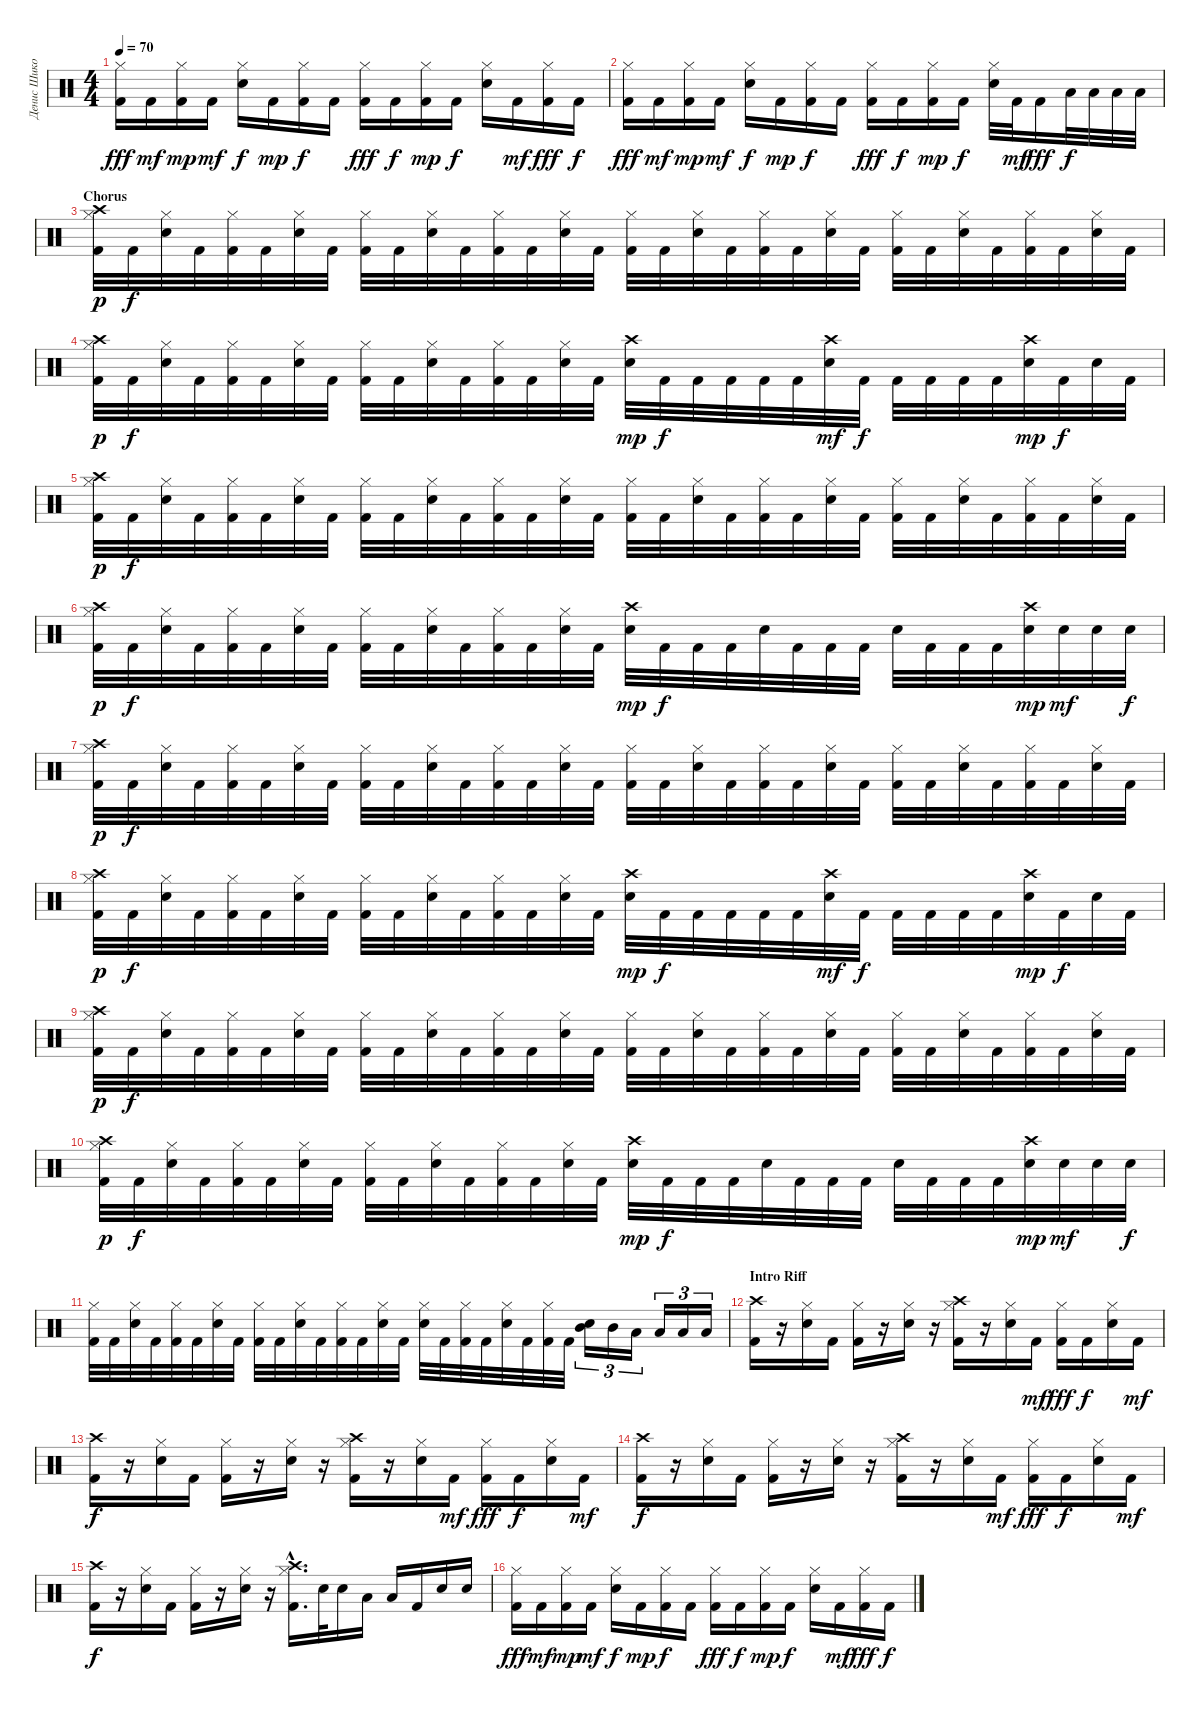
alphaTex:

\track ("Денис Шиков" "Денис Шико") {instrument percussion}
\staff {score}
\articulation defaults
\ts (4 4)
\tempo 70
\clef neutral
\ks c
("Hi-Hat (closed)" "Kick (hit) 2").16{dy fff} "Kick (hit) 2".16{dy mf} ("Hi-Hat (closed)" "Kick (hit) 2").16{dy mp} "Kick (hit) 2".16{dy mf} ("Hi-Hat (closed)" "Electric Snare (hit)").16{dy f} "Kick (hit) 2".16{dy mp} ("Hi-Hat (closed)" "Kick (hit) 2").16{dy f} "Kick (hit) 2".16 ("Hi-Hat (closed)" "Kick (hit) 2").16{dy fff} "Kick (hit) 2".16{dy f} ("Hi-Hat (closed)" "Kick (hit) 2").16{dy mp} "Kick (hit) 2".16{dy f} ("Hi-Hat (closed)" "Electric Snare (hit)").16 "Kick (hit) 2".16{dy mf} ("Hi-Hat (closed)" "Kick (hit) 2").16{dy fff} "Kick (hit) 2".16{dy f} |
("Hi-Hat (closed)" "Kick (hit) 2").16{dy fff} "Kick (hit) 2".16{dy mf} ("Hi-Hat (closed)" "Kick (hit) 2").16{dy mp} "Kick (hit) 2".16{dy mf} ("Hi-Hat (closed)" "Electric Snare (hit)").16{dy f} "Kick (hit) 2".16{dy mp} ("Hi-Hat (closed)" "Kick (hit) 2").16{dy f} "Kick (hit) 2".16 ("Hi-Hat (closed)" "Kick (hit) 2").16{dy fff} "Kick (hit) 2".16{dy f} ("Hi-Hat (closed)" "Kick (hit) 2").16{dy mp} "Kick (hit) 2".16{dy f} ("Hi-Hat (closed)" "Electric Snare (hit)").32 "Kick (hit) 2".32{dy mf} "Kick (hit) 2".16{dy fff} "Low Floor Tom (hit)".32{dy f} "Low Floor Tom (hit)".32 "Low Tom (hit)".32 "Low Floor Tom (hit)".32 |
\section ("" "Chorus")
("Crash high (hit)" "Hi-Hat (closed)" "Kick (hit) 2").32{dy p} "Kick (hit) 2".32{dy f} ("Hi-Hat (closed)" "Electric Snare (hit)").32 "Kick (hit) 2".32 ("Hi-Hat (closed)" "Kick (hit) 2").32 "Kick (hit) 2".32 ("Hi-Hat (closed)" "Electric Snare (hit)").32 "Kick (hit) 2".32 ("Hi-Hat (closed)" "Kick (hit) 2").32 "Kick (hit) 2".32 ("Hi-Hat (closed)" "Electric Snare (hit)").32 "Kick (hit) 2".32 ("Hi-Hat (closed)" "Kick (hit) 2").32 "Kick (hit) 2".32 ("Hi-Hat (closed)" "Electric Snare (hit)").32 "Kick (hit) 2".32 ("Hi-Hat (closed)" "Kick (hit) 2").32 "Kick (hit) 2".32 ("Hi-Hat (closed)" "Electric Snare (hit)").32 "Kick (hit) 2".32 ("Hi-Hat (closed)" "Kick (hit) 2").32 "Kick (hit) 2".32 ("Hi-Hat (closed)" "Electric Snare (hit)").32 "Kick (hit) 2".32 ("Hi-Hat (closed)" "Kick (hit) 2").32 "Kick (hit) 2".32 ("Hi-Hat (closed)" "Electric Snare (hit)").32 "Kick (hit) 2".32 ("Hi-Hat (closed)" "Kick (hit) 2").32 "Kick (hit) 2".32 ("Hi-Hat (closed)" "Electric Snare (hit)").32 "Kick (hit) 2".32 |
("Crash high (hit)" "Hi-Hat (closed)" "Kick (hit) 2").32{dy p} "Kick (hit) 2".32{dy f} ("Hi-Hat (closed)" "Electric Snare (hit)").32 "Kick (hit) 2".32 ("Hi-Hat (closed)" "Kick (hit) 2").32 "Kick (hit) 2".32 ("Hi-Hat (closed)" "Electric Snare (hit)").32 "Kick (hit) 2".32 ("Hi-Hat (closed)" "Kick (hit) 2").32 "Kick (hit) 2".32 ("Hi-Hat (closed)" "Electric Snare (hit)").32 "Kick (hit) 2".32 ("Hi-Hat (closed)" "Kick (hit) 2").32 "Kick (hit) 2".32 ("Hi-Hat (closed)" "Electric Snare (hit)").32 "Kick (hit) 2".32 ("Crash high (hit)" "Electric Snare (hit)").32{dy mp} "Kick (hit) 2".32{dy f} "Kick (hit) 2".32 "Kick (hit) 2".32 "Kick (hit) 2".32 "Kick (hit) 2".32 ("Crash high (hit)" "Electric Snare (hit)").32{dy mf} "Kick (hit) 2".32{dy f} "Kick (hit) 2".32 "Kick (hit) 2".32 "Kick (hit) 2".32 "Kick (hit) 2".32 ("Crash high (hit)" "Electric Snare (hit)").32{dy mp} "Kick (hit) 2".32{dy f} "Electric Snare (hit)".32 "Kick (hit) 2".32 |
("Crash high (hit)" "Hi-Hat (closed)" "Kick (hit) 2").32{dy p} "Kick (hit) 2".32{dy f} ("Hi-Hat (closed)" "Electric Snare (hit)").32 "Kick (hit) 2".32 ("Hi-Hat (closed)" "Kick (hit) 2").32 "Kick (hit) 2".32 ("Hi-Hat (closed)" "Electric Snare (hit)").32 "Kick (hit) 2".32 ("Hi-Hat (closed)" "Kick (hit) 2").32 "Kick (hit) 2".32 ("Hi-Hat (closed)" "Electric Snare (hit)").32 "Kick (hit) 2".32 ("Hi-Hat (closed)" "Kick (hit) 2").32 "Kick (hit) 2".32 ("Hi-Hat (closed)" "Electric Snare (hit)").32 "Kick (hit) 2".32 ("Hi-Hat (closed)" "Kick (hit) 2").32 "Kick (hit) 2".32 ("Hi-Hat (closed)" "Electric Snare (hit)").32 "Kick (hit) 2".32 ("Hi-Hat (closed)" "Kick (hit) 2").32 "Kick (hit) 2".32 ("Hi-Hat (closed)" "Electric Snare (hit)").32 "Kick (hit) 2".32 ("Hi-Hat (closed)" "Kick (hit) 2").32 "Kick (hit) 2".32 ("Hi-Hat (closed)" "Electric Snare (hit)").32 "Kick (hit) 2".32 ("Hi-Hat (closed)" "Kick (hit) 2").32 "Kick (hit) 2".32 ("Hi-Hat (closed)" "Electric Snare (hit)").32 "Kick (hit) 2".32 |
("Crash high (hit)" "Hi-Hat (closed)" "Kick (hit) 2").32{dy p} "Kick (hit) 2".32{dy f} ("Hi-Hat (closed)" "Electric Snare (hit)").32 "Kick (hit) 2".32 ("Hi-Hat (closed)" "Kick (hit) 2").32 "Kick (hit) 2".32 ("Hi-Hat (closed)" "Electric Snare (hit)").32 "Kick (hit) 2".32 ("Hi-Hat (closed)" "Kick (hit) 2").32 "Kick (hit) 2".32 ("Hi-Hat (closed)" "Electric Snare (hit)").32 "Kick (hit) 2".32 ("Hi-Hat (closed)" "Kick (hit) 2").32 "Kick (hit) 2".32 ("Hi-Hat (closed)" "Electric Snare (hit)").32 "Kick (hit) 2".32 ("Crash high (hit)" "Electric Snare (hit)").32{dy mp} "Kick (hit) 2".32{dy f} "Kick (hit) 2".32 "Kick (hit) 2".32 "Electric Snare (hit)".32 "Kick (hit) 2".32 "Kick (hit) 2".32 "Kick (hit) 2".32 "Electric Snare (hit)".32 "Kick (hit) 2".32 "Kick (hit) 2".32 "Kick (hit) 2".32 ("Crash high (hit)" "Electric Snare (hit)").32{dy mp} "Electric Snare (hit)".32{dy mf} "Electric Snare (hit)".32 "Electric Snare (hit)".32{dy f} |
("Crash high (hit)" "Hi-Hat (closed)" "Kick (hit) 2").32{dy p} "Kick (hit) 2".32{dy f} ("Hi-Hat (closed)" "Electric Snare (hit)").32 "Kick (hit) 2".32 ("Hi-Hat (closed)" "Kick (hit) 2").32 "Kick (hit) 2".32 ("Hi-Hat (closed)" "Electric Snare (hit)").32 "Kick (hit) 2".32 ("Hi-Hat (closed)" "Kick (hit) 2").32 "Kick (hit) 2".32 ("Hi-Hat (closed)" "Electric Snare (hit)").32 "Kick (hit) 2".32 ("Hi-Hat (closed)" "Kick (hit) 2").32 "Kick (hit) 2".32 ("Hi-Hat (closed)" "Electric Snare (hit)").32 "Kick (hit) 2".32 ("Hi-Hat (closed)" "Kick (hit) 2").32 "Kick (hit) 2".32 ("Hi-Hat (closed)" "Electric Snare (hit)").32 "Kick (hit) 2".32 ("Hi-Hat (closed)" "Kick (hit) 2").32 "Kick (hit) 2".32 ("Hi-Hat (closed)" "Electric Snare (hit)").32 "Kick (hit) 2".32 ("Hi-Hat (closed)" "Kick (hit) 2").32 "Kick (hit) 2".32 ("Hi-Hat (closed)" "Electric Snare (hit)").32 "Kick (hit) 2".32 ("Hi-Hat (closed)" "Kick (hit) 2").32 "Kick (hit) 2".32 ("Hi-Hat (closed)" "Electric Snare (hit)").32 "Kick (hit) 2".32 |
("Crash high (hit)" "Hi-Hat (closed)" "Kick (hit) 2").32{dy p} "Kick (hit) 2".32{dy f} ("Hi-Hat (closed)" "Electric Snare (hit)").32 "Kick (hit) 2".32 ("Hi-Hat (closed)" "Kick (hit) 2").32 "Kick (hit) 2".32 ("Hi-Hat (closed)" "Electric Snare (hit)").32 "Kick (hit) 2".32 ("Hi-Hat (closed)" "Kick (hit) 2").32 "Kick (hit) 2".32 ("Hi-Hat (closed)" "Electric Snare (hit)").32 "Kick (hit) 2".32 ("Hi-Hat (closed)" "Kick (hit) 2").32 "Kick (hit) 2".32 ("Hi-Hat (closed)" "Electric Snare (hit)").32 "Kick (hit) 2".32 ("Crash high (hit)" "Electric Snare (hit)").32{dy mp} "Kick (hit) 2".32{dy f} "Kick (hit) 2".32 "Kick (hit) 2".32 "Kick (hit) 2".32 "Kick (hit) 2".32 ("Crash high (hit)" "Electric Snare (hit)").32{dy mf} "Kick (hit) 2".32{dy f} "Kick (hit) 2".32 "Kick (hit) 2".32 "Kick (hit) 2".32 "Kick (hit) 2".32 ("Crash high (hit)" "Electric Snare (hit)").32{dy mp} "Kick (hit) 2".32{dy f} "Electric Snare (hit)".32 "Kick (hit) 2".32 |
("Crash high (hit)" "Hi-Hat (closed)" "Kick (hit) 2").32{dy p} "Kick (hit) 2".32{dy f} ("Hi-Hat (closed)" "Electric Snare (hit)").32 "Kick (hit) 2".32 ("Hi-Hat (closed)" "Kick (hit) 2").32 "Kick (hit) 2".32 ("Hi-Hat (closed)" "Electric Snare (hit)").32 "Kick (hit) 2".32 ("Hi-Hat (closed)" "Kick (hit) 2").32 "Kick (hit) 2".32 ("Hi-Hat (closed)" "Electric Snare (hit)").32 "Kick (hit) 2".32 ("Hi-Hat (closed)" "Kick (hit) 2").32 "Kick (hit) 2".32 ("Hi-Hat (closed)" "Electric Snare (hit)").32 "Kick (hit) 2".32 ("Hi-Hat (closed)" "Kick (hit) 2").32 "Kick (hit) 2".32 ("Hi-Hat (closed)" "Electric Snare (hit)").32 "Kick (hit) 2".32 ("Hi-Hat (closed)" "Kick (hit) 2").32 "Kick (hit) 2".32 ("Hi-Hat (closed)" "Electric Snare (hit)").32 "Kick (hit) 2".32 ("Hi-Hat (closed)" "Kick (hit) 2").32 "Kick (hit) 2".32 ("Hi-Hat (closed)" "Electric Snare (hit)").32 "Kick (hit) 2".32 ("Hi-Hat (closed)" "Kick (hit) 2").32 "Kick (hit) 2".32 ("Hi-Hat (closed)" "Electric Snare (hit)").32 "Kick (hit) 2".32 |
("Crash high (hit)" "Hi-Hat (closed)" "Kick (hit) 2").32{dy p} "Kick (hit) 2".32{dy f} ("Hi-Hat (closed)" "Electric Snare (hit)").32 "Kick (hit) 2".32 ("Hi-Hat (closed)" "Kick (hit) 2").32 "Kick (hit) 2".32 ("Hi-Hat (closed)" "Electric Snare (hit)").32 "Kick (hit) 2".32 ("Hi-Hat (closed)" "Kick (hit) 2").32 "Kick (hit) 2".32 ("Hi-Hat (closed)" "Electric Snare (hit)").32 "Kick (hit) 2".32 ("Hi-Hat (closed)" "Kick (hit) 2").32 "Kick (hit) 2".32 ("Hi-Hat (closed)" "Electric Snare (hit)").32 "Kick (hit) 2".32 ("Crash high (hit)" "Electric Snare (hit)").32{dy mp} "Kick (hit) 2".32{dy f} "Kick (hit) 2".32 "Kick (hit) 2".32 "Electric Snare (hit)".32 "Kick (hit) 2".32 "Kick (hit) 2".32 "Kick (hit) 2".32 "Electric Snare (hit)".32 "Kick (hit) 2".32 "Kick (hit) 2".32 "Kick (hit) 2".32 ("Crash high (hit)" "Electric Snare (hit)").32{dy mp} "Electric Snare (hit)".32{dy mf} "Electric Snare (hit)".32 "Electric Snare (hit)".32{dy f} |
("Hi-Hat (closed)" "Kick (hit) 2").32 "Kick (hit) 2".32 ("Hi-Hat (closed)" "Electric Snare (hit)").32 "Kick (hit) 2".32 ("Hi-Hat (closed)" "Kick (hit) 2").32 "Kick (hit) 2".32 ("Hi-Hat (closed)" "Electric Snare (hit)").32 "Kick (hit) 2".32 ("Hi-Hat (closed)" "Kick (hit) 2").32 "Kick (hit) 2".32 ("Hi-Hat (closed)" "Electric Snare (hit)").32 "Kick (hit) 2".32 ("Hi-Hat (closed)" "Kick (hit) 2").32 "Kick (hit) 2".32 ("Hi-Hat (closed)" "Electric Snare (hit)").32 "Kick (hit) 2".32 ("Hi-Hat (closed)" "Electric Snare (hit)").32 "Kick (hit) 2".32 ("Hi-Hat (closed)" "Kick (hit) 2").32 "Kick (hit) 2".32 ("Hi-Hat (closed)" "Electric Snare (hit)").32 "Kick (hit) 2".32 ("Hi-Hat (closed)" "Kick (hit) 2").32 "Kick (hit) 2".32 ("Electric Snare (hit)" "Mid Tom (hit)").16{tu (3 2)} "Mid Tom (hit)".16{tu (3 2)} "Low Tom (hit)".16{tu (3 2)} "Low Tom (hit)".16{tu (3 2)} "Low Floor Tom (hit)".16{tu (3 2)} "Low Floor Tom (hit)".16{tu (3 2)} |
\section ("" "Intro Riff")
("Crash high (hit)" "Kick (hit) 2").16 r.16 ("Hi-Hat (closed)" "Electric Snare (hit)").16 "Kick (hit) 2".16 ("Hi-Hat (closed)" "Kick (hit) 2").16 r.16 ("Hi-Hat (closed)" "Electric Snare (hit)").16 r.16 ("Crash high (hit)" "Hi-Hat (closed)" "Kick (hit) 2").16 r.16 ("Hi-Hat (closed)" "Electric Snare (hit)").16 "Kick (hit) 2".16{dy mf} ("Hi-Hat (closed)" "Kick (hit) 2").16{dy fff} "Kick (hit) 2".16{dy f} ("Hi-Hat (closed)" "Electric Snare (hit)").16 "Kick (hit) 2".16{dy mf} |
("Crash high (hit)" "Kick (hit) 2").16{dy f} r.16 ("Hi-Hat (closed)" "Electric Snare (hit)").16 "Kick (hit) 2".16 ("Hi-Hat (closed)" "Kick (hit) 2").16 r.16 ("Hi-Hat (closed)" "Electric Snare (hit)").16 r.16 ("Crash high (hit)" "Hi-Hat (closed)" "Kick (hit) 2").16 r.16 ("Hi-Hat (closed)" "Electric Snare (hit)").16 "Kick (hit) 2".16{dy mf} ("Hi-Hat (closed)" "Kick (hit) 2").16{dy fff} "Kick (hit) 2".16{dy f} ("Hi-Hat (closed)" "Electric Snare (hit)").16 "Kick (hit) 2".16{dy mf} |
("Crash high (hit)" "Kick (hit) 2").16{dy f} r.16 ("Hi-Hat (closed)" "Electric Snare (hit)").16 "Kick (hit) 2".16 ("Hi-Hat (closed)" "Kick (hit) 2").16 r.16 ("Hi-Hat (closed)" "Electric Snare (hit)").16 r.16 ("Crash high (hit)" "Hi-Hat (closed)" "Kick (hit) 2").16 r.16 ("Hi-Hat (closed)" "Electric Snare (hit)").16 "Kick (hit) 2".16{dy mf} ("Hi-Hat (closed)" "Kick (hit) 2").16{dy fff} "Kick (hit) 2".16{dy f} ("Hi-Hat (closed)" "Electric Snare (hit)").16 "Kick (hit) 2".16{dy mf} |
("Crash high (hit)" "Kick (hit) 2").16{dy f} r.16 ("Hi-Hat (closed)" "Electric Snare (hit)").16 "Kick (hit) 2".16 ("Hi-Hat (closed)" "Kick (hit) 2").16 r.16 ("Hi-Hat (closed)" "Electric Snare (hit)").16 r.16 ("Crash high (hit)"{hac} "Hi-Hat (closed)"{hac} "Kick (hit) 2"{hac}).16{d} "Electric Snare (hit)".32 "Electric Snare (hit)".16 "Low Tom (hit)".16 "Low Floor Tom (hit)".16 "Kick (hit) 2".16 "Electric Snare (hit)".16 "Electric Snare (hit)".16 |
("Hi-Hat (closed)" "Kick (hit) 2").16{dy fff} "Kick (hit) 2".16{dy mf} ("Hi-Hat (closed)" "Kick (hit) 2").16{dy mp} "Kick (hit) 2".16{dy mf} ("Hi-Hat (closed)" "Electric Snare (hit)").16{dy f} "Kick (hit) 2".16{dy mp} ("Hi-Hat (closed)" "Kick (hit) 2").16{dy f} "Kick (hit) 2".16 ("Hi-Hat (closed)" "Kick (hit) 2").16{dy fff} "Kick (hit) 2".16{dy f} ("Hi-Hat (closed)" "Kick (hit) 2").16{dy mp} "Kick (hit) 2".16{dy f} ("Hi-Hat (closed)" "Electric Snare (hit)").16 "Kick (hit) 2".16{dy mf} ("Hi-Hat (closed)" "Kick (hit) 2").16{dy fff} "Kick (hit) 2".16{dy f}
